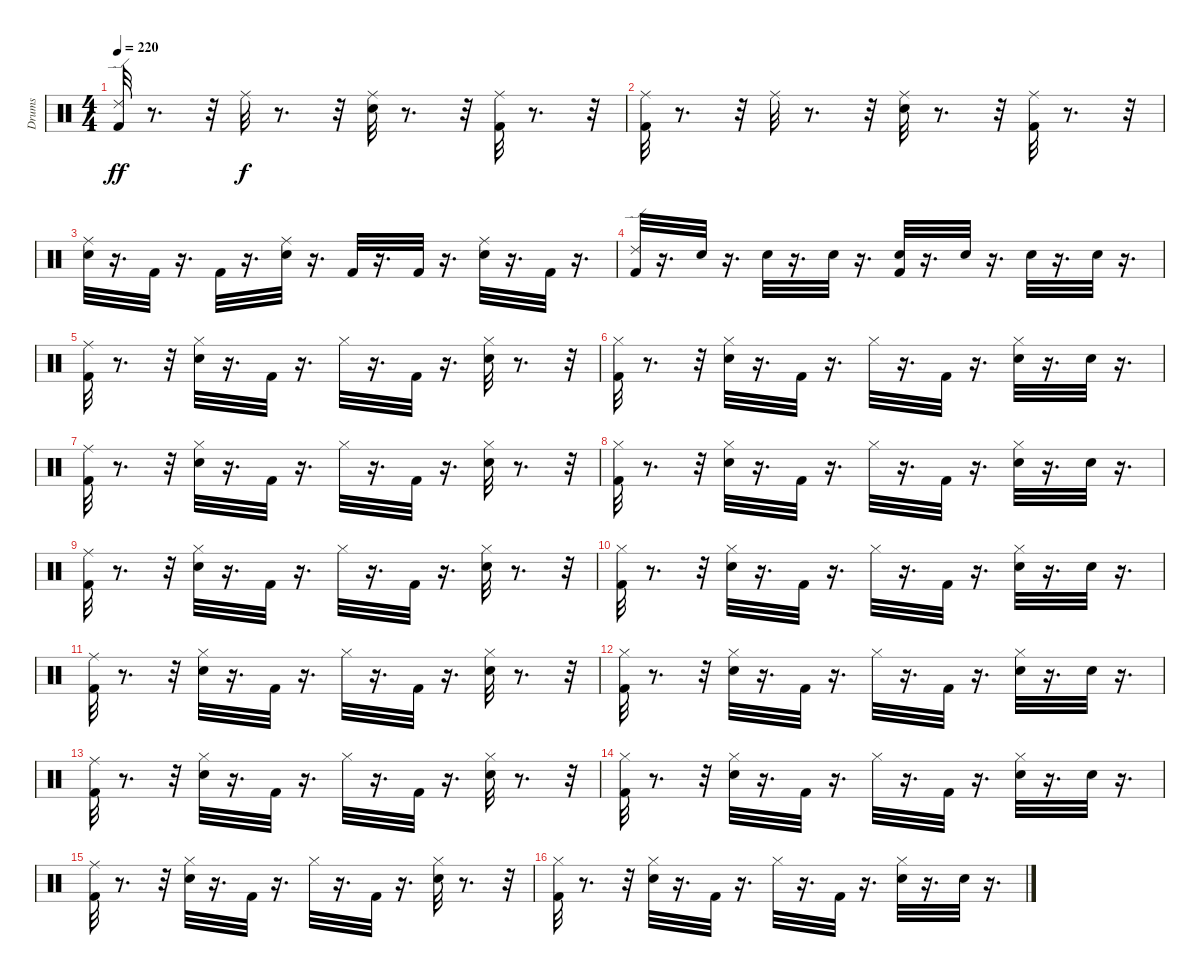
\track ("Drums" "Drums") {instrument percussion}
\staff {score}
\articulation defaults
\ts (4 4)
\tempo 220
\clef neutral
\ks c
("Ride (edge) 2" "Kick (hit) 2").32{dy ff} r.8{d} r.32 "Ride (middle)".32{dy f} r.8{d} r.32 ("Ride (middle)" "Snare (hit) 2").32 r.8{d} r.32 ("Ride (middle)" "Kick (hit) 2").32 r.8{d} r.32 |
("Ride (middle)" "Kick (hit) 2").32 r.8{d} r.32 "Ride (middle)".32 r.8{d} r.32 ("Ride (middle)" "Snare (hit) 2").32 r.8{d} r.32 ("Kick (hit) 2" "Ride (middle)").32 r.8{d} r.32 |
("Snare (hit) 2" "Ride (middle)").32 r.16{d} "Kick (hit) 2".32 r.16{d} "Kick (hit) 2".32 r.16{d} ("Ride (middle)" "Snare (hit) 2").32 r.16{d} "Kick (hit) 2".32 r.16{d} "Kick (hit) 2".32 r.16{d} ("Ride (middle)" "Snare (hit) 2").32 r.16{d} "Kick (hit) 2".32 r.16{d} |
("Ride (edge) 2" "Kick (hit) 2").32 r.16{d} "Snare (hit) 2".32 r.16{d} "Snare (hit) 2".32 r.16{d} "Snare (hit) 2".32 r.16{d} ("Kick (hit) 2" "Snare (hit) 2").32 r.16{d} "Snare (hit) 2".32 r.16{d} "Snare (hit) 2".32 r.16{d} "Snare (hit) 2".32 r.16{d} |
("Ride (middle)" "Kick (hit) 2").32 r.8{d} r.32 ("Hi-Hat (closed)" "Snare (hit) 2").32 r.16{d} "Kick (hit) 2".32 r.16{d} "Hi-Hat (closed)".32 r.16{d} "Kick (hit) 2".32 r.16{d} ("Hi-Hat (closed)" "Snare (hit) 2").32 r.8{d} r.32 |
("Kick (hit) 2" "Hi-Hat (closed)").32 r.8{d} r.32 ("Snare (hit) 2" "Hi-Hat (closed)").32 r.16{d} "Kick (hit) 2".32 r.16{d} "Hi-Hat (closed)".32 r.16{d} "Kick (hit) 2".32 r.16{d} ("Snare (hit) 2" "Hi-Hat (closed)").32 r.16{d} "Snare (hit) 2".32 r.16{d} |
("Ride (middle)" "Kick (hit) 2").32 r.8{d} r.32 ("Hi-Hat (closed)" "Snare (hit) 2").32 r.16{d} "Kick (hit) 2".32 r.16{d} "Hi-Hat (closed)".32 r.16{d} "Kick (hit) 2".32 r.16{d} ("Hi-Hat (closed)" "Snare (hit) 2").32 r.8{d} r.32 |
("Kick (hit) 2" "Hi-Hat (closed)").32 r.8{d} r.32 ("Snare (hit) 2" "Hi-Hat (closed)").32 r.16{d} "Kick (hit) 2".32 r.16{d} "Hi-Hat (closed)".32 r.16{d} "Kick (hit) 2".32 r.16{d} ("Snare (hit) 2" "Hi-Hat (closed)").32 r.16{d} "Snare (hit) 2".32 r.16{d} |
("Ride (middle)" "Kick (hit) 2").32 r.8{d} r.32 ("Hi-Hat (closed)" "Snare (hit) 2").32 r.16{d} "Kick (hit) 2".32 r.16{d} "Hi-Hat (closed)".32 r.16{d} "Kick (hit) 2".32 r.16{d} ("Hi-Hat (closed)" "Snare (hit) 2").32 r.8{d} r.32 |
("Kick (hit) 2" "Hi-Hat (closed)").32 r.8{d} r.32 ("Snare (hit) 2" "Hi-Hat (closed)").32 r.16{d} "Kick (hit) 2".32 r.16{d} "Hi-Hat (closed)".32 r.16{d} "Kick (hit) 2".32 r.16{d} ("Snare (hit) 2" "Hi-Hat (closed)").32 r.16{d} "Snare (hit) 2".32 r.16{d} |
("Ride (middle)" "Kick (hit) 2").32 r.8{d} r.32 ("Hi-Hat (closed)" "Snare (hit) 2").32 r.16{d} "Kick (hit) 2".32 r.16{d} "Hi-Hat (closed)".32 r.16{d} "Kick (hit) 2".32 r.16{d} ("Hi-Hat (closed)" "Snare (hit) 2").32 r.8{d} r.32 |
("Kick (hit) 2" "Hi-Hat (closed)").32 r.8{d} r.32 ("Snare (hit) 2" "Hi-Hat (closed)").32 r.16{d} "Kick (hit) 2".32 r.16{d} "Hi-Hat (closed)".32 r.16{d} "Kick (hit) 2".32 r.16{d} ("Snare (hit) 2" "Hi-Hat (closed)").32 r.16{d} "Snare (hit) 2".32 r.16{d} |
("Ride (middle)" "Kick (hit) 2").32 r.8{d} r.32 ("Hi-Hat (closed)" "Snare (hit) 2").32 r.16{d} "Kick (hit) 2".32 r.16{d} "Hi-Hat (closed)".32 r.16{d} "Kick (hit) 2".32 r.16{d} ("Hi-Hat (closed)" "Snare (hit) 2").32 r.8{d} r.32 |
("Kick (hit) 2" "Hi-Hat (closed)").32 r.8{d} r.32 ("Snare (hit) 2" "Hi-Hat (closed)").32 r.16{d} "Kick (hit) 2".32 r.16{d} "Hi-Hat (closed)".32 r.16{d} "Kick (hit) 2".32 r.16{d} ("Snare (hit) 2" "Hi-Hat (closed)").32 r.16{d} "Snare (hit) 2".32 r.16{d} |
("Ride (middle)" "Kick (hit) 2").32 r.8{d} r.32 ("Hi-Hat (closed)" "Snare (hit) 2").32 r.16{d} "Kick (hit) 2".32 r.16{d} "Hi-Hat (closed)".32 r.16{d} "Kick (hit) 2".32 r.16{d} ("Hi-Hat (closed)" "Snare (hit) 2").32 r.8{d} r.32 |
("Kick (hit) 2" "Hi-Hat (closed)").32 r.8{d} r.32 ("Snare (hit) 2" "Hi-Hat (closed)").32 r.16{d} "Kick (hit) 2".32 r.16{d} "Hi-Hat (closed)".32 r.16{d} "Kick (hit) 2".32 r.16{d} ("Snare (hit) 2" "Hi-Hat (closed)").32 r.16{d} "Snare (hit) 2".32 r.16{d}
